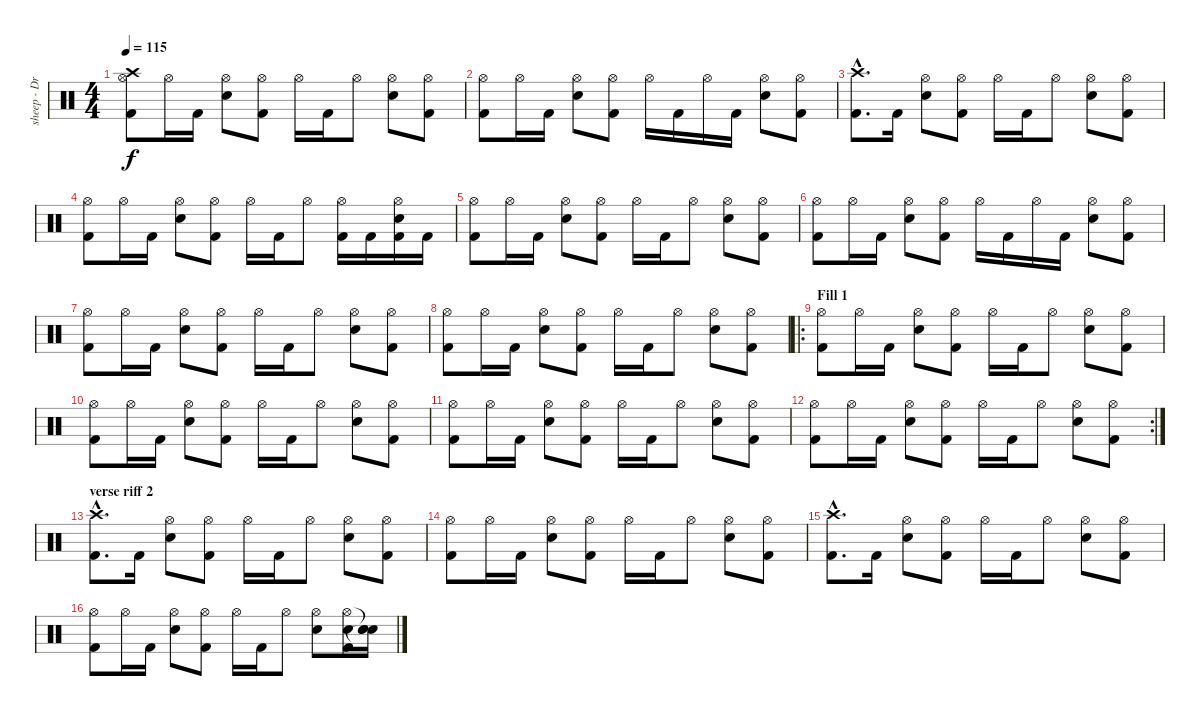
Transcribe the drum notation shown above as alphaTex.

\track ("sheep - Drum track (guide)" "sheep - Dr") {instrument percussion}
\staff {score}
\articulation defaults
\ts (4 4)
\tempo 115
\clef neutral
\ks c
("Hi-Hat (open)" "Crash high (hit)" "Kick (hit) 2").8{dy f} "Hi-Hat (open)".16 "Kick (hit) 2".16 ("Hi-Hat (open)" "Electric Snare (hit)").8 ("Hi-Hat (open)" "Kick (hit) 2").8 "Hi-Hat (open)".16 "Kick (hit) 2".16 "Hi-Hat (open)".8 ("Hi-Hat (open)" "Electric Snare (hit)").8 ("Hi-Hat (open)" "Kick (hit) 2").8 |
("Hi-Hat (open)" "Kick (hit) 2").8 "Hi-Hat (open)".16 "Kick (hit) 2".16 ("Hi-Hat (open)" "Electric Snare (hit)").8 ("Hi-Hat (open)" "Kick (hit) 2").8 "Hi-Hat (open)".16 "Kick (hit) 2".16 "Hi-Hat (open)".16 "Kick (hit) 2".16 ("Hi-Hat (open)" "Electric Snare (hit)").8 ("Hi-Hat (open)" "Kick (hit) 2").8 |
("Crash high (hit)"{hac} "Kick (hit) 2"{hac}).8{d} "Kick (hit) 2".16 ("Hi-Hat (open)" "Electric Snare (hit)").8 ("Hi-Hat (open)" "Kick (hit) 2").8 "Hi-Hat (open)".16 "Kick (hit) 2".16 "Hi-Hat (open)".8 ("Hi-Hat (open)" "Electric Snare (hit)").8 ("Hi-Hat (open)" "Kick (hit) 2").8 |
("Hi-Hat (open)" "Kick (hit) 2").8 "Hi-Hat (open)".16 "Kick (hit) 2".16 ("Hi-Hat (open)" "Electric Snare (hit)").8 ("Hi-Hat (open)" "Kick (hit) 2").8 "Hi-Hat (open)".16 "Kick (hit) 2".16 "Hi-Hat (open)".8 ("Hi-Hat (open)" "Kick (hit) 2").16 "Kick (hit) 2".16 ("Hi-Hat (open)" "Electric Snare (hit)" "Kick (hit) 2").16 "Kick (hit) 2".16 |
("Hi-Hat (open)" "Kick (hit) 2").8 "Hi-Hat (open)".16 "Kick (hit) 2".16 ("Hi-Hat (open)" "Electric Snare (hit)").8 ("Hi-Hat (open)" "Kick (hit) 2").8 "Hi-Hat (open)".16 "Kick (hit) 2".16 "Hi-Hat (open)".8 ("Hi-Hat (open)" "Electric Snare (hit)").8 ("Hi-Hat (open)" "Kick (hit) 2").8 |
("Hi-Hat (open)" "Kick (hit) 2").8 "Hi-Hat (open)".16 "Kick (hit) 2".16 ("Hi-Hat (open)" "Electric Snare (hit)").8 ("Hi-Hat (open)" "Kick (hit) 2").8 "Hi-Hat (open)".16 "Kick (hit) 2".16 "Hi-Hat (open)".16 "Kick (hit) 2".16 ("Hi-Hat (open)" "Electric Snare (hit)").8 ("Hi-Hat (open)" "Kick (hit) 2").8 |
("Hi-Hat (open)" "Kick (hit) 2").8 "Hi-Hat (open)".16 "Kick (hit) 2".16 ("Hi-Hat (open)" "Electric Snare (hit)").8 ("Hi-Hat (open)" "Kick (hit) 2").8 "Hi-Hat (open)".16 "Kick (hit) 2".16 "Hi-Hat (open)".8 ("Hi-Hat (open)" "Electric Snare (hit)").8 ("Hi-Hat (open)" "Kick (hit) 2").8 |
("Hi-Hat (open)" "Kick (hit) 2").8 "Hi-Hat (open)".16 "Kick (hit) 2".16 ("Hi-Hat (open)" "Electric Snare (hit)").8 ("Hi-Hat (open)" "Kick (hit) 2").8 "Hi-Hat (open)".16 "Kick (hit) 2".16 "Hi-Hat (open)".8 ("Hi-Hat (open)" "Electric Snare (hit)").8 ("Hi-Hat (open)" "Kick (hit) 2").8 |
\ro
\section ("" "Fill 1")
("Hi-Hat (open)" "Kick (hit) 2").8 "Hi-Hat (open)".16 "Kick (hit) 2".16 ("Hi-Hat (open)" "Electric Snare (hit)").8 ("Hi-Hat (open)" "Kick (hit) 2").8 "Hi-Hat (open)".16 "Kick (hit) 2".16 "Hi-Hat (open)".8 ("Hi-Hat (open)" "Electric Snare (hit)").8 ("Hi-Hat (open)" "Kick (hit) 2").8 |
("Hi-Hat (open)" "Kick (hit) 2").8 "Hi-Hat (open)".16 "Kick (hit) 2".16 ("Hi-Hat (open)" "Electric Snare (hit)").8 ("Hi-Hat (open)" "Kick (hit) 2").8 "Hi-Hat (open)".16 "Kick (hit) 2".16 "Hi-Hat (open)".8 ("Hi-Hat (open)" "Electric Snare (hit)").8 ("Hi-Hat (open)" "Kick (hit) 2").8 |
("Hi-Hat (open)" "Kick (hit) 2").8 "Hi-Hat (open)".16 "Kick (hit) 2".16 ("Hi-Hat (open)" "Electric Snare (hit)").8 ("Hi-Hat (open)" "Kick (hit) 2").8 "Hi-Hat (open)".16 "Kick (hit) 2".16 "Hi-Hat (open)".8 ("Hi-Hat (open)" "Electric Snare (hit)").8 ("Hi-Hat (open)" "Kick (hit) 2").8 |
\rc 2
("Hi-Hat (open)" "Kick (hit) 2").8 "Hi-Hat (open)".16 "Kick (hit) 2".16 ("Hi-Hat (open)" "Electric Snare (hit)").8 ("Hi-Hat (open)" "Kick (hit) 2").8 "Hi-Hat (open)".16 "Kick (hit) 2".16 "Hi-Hat (open)".8 ("Hi-Hat (open)" "Electric Snare (hit)").8 ("Hi-Hat (open)" "Kick (hit) 2").8 |
\section ("" "verse riff 2")
("Crash high (hit)"{hac} "Kick (hit) 2"{hac}).8{d} "Kick (hit) 2".16 ("Hi-Hat (open)" "Electric Snare (hit)").8 ("Hi-Hat (open)" "Kick (hit) 2").8 "Hi-Hat (open)".16 "Kick (hit) 2".16 "Hi-Hat (open)".8 ("Hi-Hat (open)" "Electric Snare (hit)").8 ("Hi-Hat (open)" "Kick (hit) 2").8 |
("Hi-Hat (open)" "Kick (hit) 2").8 "Hi-Hat (open)".16 "Kick (hit) 2".16 ("Hi-Hat (open)" "Electric Snare (hit)").8 ("Hi-Hat (open)" "Kick (hit) 2").8 "Hi-Hat (open)".16 "Kick (hit) 2".16 "Hi-Hat (open)".8 ("Hi-Hat (open)" "Electric Snare (hit)").8 ("Hi-Hat (open)" "Kick (hit) 2").8 |
("Crash high (hit)"{hac} "Kick (hit) 2"{hac}).8{d} "Kick (hit) 2".16 ("Hi-Hat (open)" "Electric Snare (hit)").8 ("Hi-Hat (open)" "Kick (hit) 2").8 "Hi-Hat (open)".16 "Kick (hit) 2".16 "Hi-Hat (open)".8 ("Hi-Hat (open)" "Electric Snare (hit)").8 ("Hi-Hat (open)" "Kick (hit) 2").8 |
("Hi-Hat (open)" "Kick (hit) 2").8 "Hi-Hat (open)".16 "Kick (hit) 2".16 ("Hi-Hat (open)" "Electric Snare (hit)").8 ("Hi-Hat (open)" "Kick (hit) 2").8 "Hi-Hat (open)".16 "Kick (hit) 2".16 "Hi-Hat (open)".8 ("Hi-Hat (open)" "Electric Snare (hit)").8 ("Hi-Hat (open)" "Electric Snare (hit)" "Kick (hit) 2").16 ("Snare (hit)"{t} "Electric Snare (hit)" "Snare (hit)"{t}).16
